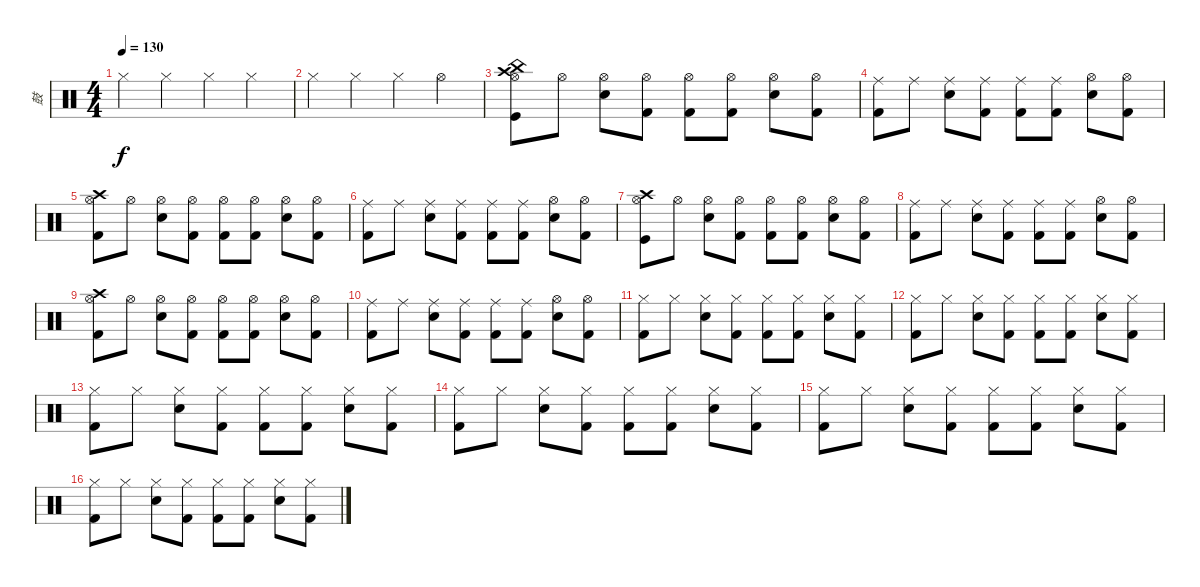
\track ("鼓" "鼓") {instrument percussion}
\staff {score}
\articulation defaults
\ts (4 4)
\tempo 130
\clef neutral
\ks c "Hi-Hat (closed)".4{dy f} "Hi-Hat (closed)".4 "Hi-Hat (closed)".4 "Hi-Hat (closed)".4
|
"Hi-Hat (closed)".4 "Hi-Hat (closed)".4 "Hi-Hat (closed)".4 "Hi-Hat (open)".4 |
("China (hit)" "Hi-Hat (open)" "Crash high (hit)" "Kick (hit)").8 "Hi-Hat (open)".8 ("Hi-Hat (open)" "Electric Snare (hit)").8 ("Hi-Hat (open)" "Kick (hit) 2").8 ("Hi-Hat (open)" "Kick (hit) 2").8 ("Hi-Hat (open)" "Kick (hit) 2").8 ("Hi-Hat (open)" "Electric Snare (hit)").8 ("Hi-Hat (open)" "Kick (hit) 2").8 |
("Ride (middle)" "Kick (hit) 2").8 "Ride (middle)".8 ("Ride (middle)" "Electric Snare (hit)").8 ("Ride (middle)" "Kick (hit) 2").8 ("Ride (middle)" "Kick (hit) 2").8 ("Ride (middle)" "Kick (hit) 2").8 ("Hi-Hat (open)" "Electric Snare (hit)").8 ("Hi-Hat (open)" "Kick (hit) 2").8 |
("Hi-Hat (open)" "Crash high (hit)" "Kick (hit) 2").8 "Hi-Hat (open)".8 ("Hi-Hat (open)" "Electric Snare (hit)").8 ("Hi-Hat (open)" "Kick (hit) 2").8 ("Hi-Hat (open)" "Kick (hit) 2").8 ("Hi-Hat (open)" "Kick (hit) 2").8 ("Hi-Hat (open)" "Electric Snare (hit)").8 ("Hi-Hat (open)" "Kick (hit) 2").8 |
("Ride (middle)" "Kick (hit) 2").8 "Ride (middle)".8 ("Ride (middle)" "Electric Snare (hit)").8 ("Ride (middle)" "Kick (hit) 2").8 ("Ride (middle)" "Kick (hit) 2").8 ("Ride (middle)" "Kick (hit) 2").8 ("Hi-Hat (open)" "Electric Snare (hit)").8 ("Hi-Hat (open)" "Kick (hit) 2").8 |
("Hi-Hat (open)" "Crash high (hit)" "Kick (hit)").8 "Hi-Hat (open)".8 ("Hi-Hat (open)" "Electric Snare (hit)").8 ("Hi-Hat (open)" "Kick (hit) 2").8 ("Hi-Hat (open)" "Kick (hit) 2").8 ("Hi-Hat (open)" "Kick (hit) 2").8 ("Hi-Hat (open)" "Electric Snare (hit)").8 ("Hi-Hat (open)" "Kick (hit) 2").8 |
("Ride (middle)" "Kick (hit) 2").8 "Ride (middle)".8 ("Ride (middle)" "Electric Snare (hit)").8 ("Ride (middle)" "Kick (hit) 2").8 ("Ride (middle)" "Kick (hit) 2").8 ("Ride (middle)" "Kick (hit) 2").8 ("Hi-Hat (open)" "Electric Snare (hit)").8 ("Hi-Hat (open)" "Kick (hit) 2").8 |
("Hi-Hat (open)" "Crash high (hit)" "Kick (hit) 2").8 "Hi-Hat (open)".8 ("Hi-Hat (open)" "Electric Snare (hit)").8 ("Hi-Hat (open)" "Kick (hit) 2").8 ("Hi-Hat (open)" "Kick (hit) 2").8 ("Hi-Hat (open)" "Kick (hit) 2").8 ("Hi-Hat (open)" "Electric Snare (hit)").8 ("Hi-Hat (open)" "Kick (hit) 2").8 |
("Ride (middle)" "Kick (hit) 2").8 "Ride (middle)".8 ("Ride (middle)" "Electric Snare (hit)").8 ("Ride (middle)" "Kick (hit) 2").8 ("Ride (middle)" "Kick (hit) 2").8 ("Ride (middle)" "Kick (hit) 2").8 ("Hi-Hat (open)" "Electric Snare (hit)").8 ("Hi-Hat (open)" "Kick (hit) 2").8 |
("Hi-Hat (closed)" "Kick (hit) 2").8 "Hi-Hat (closed)".8 ("Hi-Hat (closed)" "Electric Snare (hit)").8 ("Hi-Hat (closed)" "Kick (hit) 2").8 ("Hi-Hat (closed)" "Kick (hit) 2").8 ("Hi-Hat (closed)" "Kick (hit) 2").8 ("Hi-Hat (closed)" "Electric Snare (hit)").8 ("Hi-Hat (closed)" "Kick (hit) 2").8 |
("Hi-Hat (closed)" "Kick (hit) 2").8 "Hi-Hat (closed)".8 ("Hi-Hat (closed)" "Electric Snare (hit)").8 ("Hi-Hat (closed)" "Kick (hit) 2").8 ("Hi-Hat (closed)" "Kick (hit) 2").8 ("Hi-Hat (closed)" "Kick (hit) 2").8 ("Hi-Hat (closed)" "Electric Snare (hit)").8 ("Hi-Hat (closed)" "Kick (hit) 2").8 |
("Hi-Hat (closed)" "Kick (hit) 2").8 "Hi-Hat (closed)".8 ("Hi-Hat (closed)" "Electric Snare (hit)").8 ("Hi-Hat (closed)" "Kick (hit) 2").8 ("Hi-Hat (closed)" "Kick (hit) 2").8 ("Hi-Hat (closed)" "Kick (hit) 2").8 ("Hi-Hat (closed)" "Electric Snare (hit)").8 ("Hi-Hat (closed)" "Kick (hit) 2").8 |
("Hi-Hat (closed)" "Kick (hit) 2").8 "Hi-Hat (closed)".8 ("Hi-Hat (closed)" "Electric Snare (hit)").8 ("Hi-Hat (closed)" "Kick (hit) 2").8 ("Hi-Hat (closed)" "Kick (hit) 2").8 ("Hi-Hat (closed)" "Kick (hit) 2").8 ("Hi-Hat (closed)" "Electric Snare (hit)").8 ("Hi-Hat (closed)" "Kick (hit) 2").8 |
("Hi-Hat (closed)" "Kick (hit) 2").8 "Hi-Hat (closed)".8 ("Hi-Hat (closed)" "Electric Snare (hit)").8 ("Hi-Hat (closed)" "Kick (hit) 2").8 ("Hi-Hat (closed)" "Kick (hit) 2").8 ("Hi-Hat (closed)" "Kick (hit) 2").8 ("Hi-Hat (closed)" "Electric Snare (hit)").8 ("Hi-Hat (closed)" "Kick (hit) 2").8 |
("Hi-Hat (closed)" "Kick (hit) 2").8 "Hi-Hat (closed)".8 ("Hi-Hat (closed)" "Electric Snare (hit)").8 ("Hi-Hat (closed)" "Kick (hit) 2").8 ("Hi-Hat (closed)" "Kick (hit) 2").8 ("Hi-Hat (closed)" "Kick (hit) 2").8 ("Hi-Hat (closed)" "Electric Snare (hit)").8 ("Hi-Hat (closed)" "Kick (hit) 2").8
